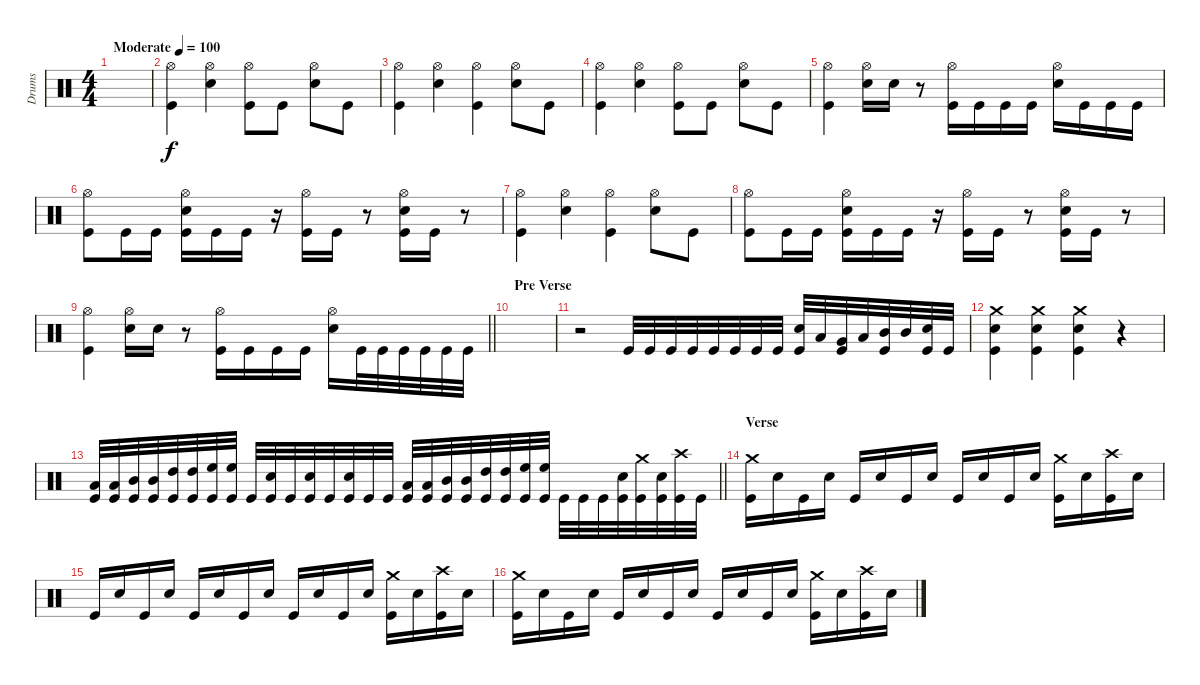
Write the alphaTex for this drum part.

\track ("Drums" "Drums") {instrument percussion}
\staff {score}
\articulation defaults
\ts (4 4)
\tempo (100 "Moderate")
\clef neutral
\ks c
|
("Hi-Hat (open)" "Kick (hit)").4 ("Hi-Hat (open)" "Electric Snare (hit)").4 ("Hi-Hat (open)" "Kick (hit)").8 "Kick (hit)".8 ("Hi-Hat (open)" "Electric Snare (hit)").8 "Kick (hit)".8 |
("Hi-Hat (open)" "Kick (hit)").4 ("Hi-Hat (open)" "Electric Snare (hit)").4 ("Hi-Hat (open)" "Kick (hit)").4 ("Hi-Hat (open)" "Electric Snare (hit)").8 "Kick (hit)".8 |
("Hi-Hat (open)" "Kick (hit)").4 ("Hi-Hat (open)" "Electric Snare (hit)").4 ("Hi-Hat (open)" "Kick (hit)").8 "Kick (hit)".8 ("Hi-Hat (open)" "Electric Snare (hit)").8 "Kick (hit)".8 |
("Hi-Hat (open)" "Kick (hit)").4 ("Hi-Hat (open)" "Electric Snare (hit)").16 "Electric Snare (hit)".16 r.8 ("Hi-Hat (open)" "Kick (hit)").16 "Kick (hit)".16 "Kick (hit)".16 "Kick (hit)".16 ("Hi-Hat (open)" "Electric Snare (hit)").16 "Kick (hit)".16 "Kick (hit)".16 "Kick (hit)".16 |
("Hi-Hat (open)" "Kick (hit)").8 "Kick (hit)".16 "Kick (hit)".16 ("Hi-Hat (open)" "Electric Snare (hit)" "Kick (hit)").16 "Kick (hit)".16 "Kick (hit)".16 r.16 ("Hi-Hat (open)" "Kick (hit)").16 "Kick (hit)".16 r.8 ("Hi-Hat (open)" "Electric Snare (hit)" "Kick (hit)").16 "Kick (hit)".16 r.8 |
("Hi-Hat (open)" "Kick (hit)").4 ("Hi-Hat (open)" "Electric Snare (hit)").4 ("Hi-Hat (open)" "Kick (hit)").4 ("Hi-Hat (open)" "Electric Snare (hit)").8 "Kick (hit)".8 |
("Hi-Hat (open)" "Kick (hit)").8 "Kick (hit)".16 "Kick (hit)".16 ("Hi-Hat (open)" "Electric Snare (hit)" "Kick (hit)").16 "Kick (hit)".16 "Kick (hit)".16 r.16 ("Hi-Hat (open)" "Kick (hit)").16 "Kick (hit)".16 r.8 ("Hi-Hat (open)" "Electric Snare (hit)" "Kick (hit)").16 "Kick (hit)".16 r.8 |
\barLineRight lightlight
("Hi-Hat (open)" "Kick (hit)").4 ("Hi-Hat (open)" "Electric Snare (hit)").16 "Electric Snare (hit)".16 r.8 ("Hi-Hat (open)" "Kick (hit)").16 "Kick (hit)".16 "Kick (hit)".16 "Kick (hit)".16 ("Hi-Hat (open)" "Electric Snare (hit)").16 "Kick (hit)".32 "Kick (hit)".32 "Kick (hit)".32 "Kick (hit)".32 "Kick (hit)".32 "Kick (hit)".32 |
\section ("" "Pre Verse")
|
r.2 "Kick (hit)".32 "Kick (hit)".32 "Kick (hit)".32 "Kick (hit)".32 "Kick (hit)".32 "Kick (hit)".32 "Kick (hit)".32 "Kick (hit)".32 ("Electric Snare (hit)" "Kick (hit)").32 "Low Tom (hit)".32 ("Very Low Tom (hit)" "Kick (hit)").32 "Low Tom (hit)".32 ("Mid Tom (hit)" "Kick (hit)").32 "Mid Tom (hit)".32 ("Electric Snare (hit)" "Kick (hit)").32 "Kick (hit)".32 |
("Crash medium (hit)" "Electric Snare (hit)" "Kick (hit)").4 ("Crash medium (hit)" "Electric Snare (hit)" "Kick (hit)").4 ("Crash medium (hit)" "Electric Snare (hit)" "Kick (hit)").4 r.4 |
\barLineRight lightlight
("Low Tom (hit)" "Kick (hit)").32 ("Low Tom (hit)" "Kick (hit)").32 ("Mid Tom (hit)" "Kick (hit)").32 ("Mid Tom (hit)" "Kick (hit)").32 ("High Tom (hit)" "Kick (hit)").32 ("High Tom (hit)" "Kick (hit)").32 ("High Floor Tom (hit)" "Kick (hit)").32 ("High Floor Tom (hit)" "Kick (hit)").32 "Kick (hit)".32 ("Electric Snare (hit)" "Kick (hit)").32 "Kick (hit)".32 ("Electric Snare (hit)" "Kick (hit)").32 "Kick (hit)".32 ("Electric Snare (hit)" "Kick (hit)").32 "Kick (hit)".32 "Kick (hit)".32 ("Low Tom (hit)" "Kick (hit)").32 ("Low Tom (hit)" "Kick (hit)").32 ("Mid Tom (hit)" "Kick (hit)").32 ("Mid Tom (hit)" "Kick (hit)").32 ("High Tom (hit)" "Kick (hit)").32 ("High Tom (hit)" "Kick (hit)").32 ("High Floor Tom (hit)" "Kick (hit)").32 ("High Floor Tom (hit)" "Kick (hit)").32 "Kick (hit)".32 "Kick (hit)".32 "Kick (hit)".32 ("Electric Snare (hit)" "Kick (hit)").32 ("Crash medium (hit)" "Kick (hit)").32 ("Electric Snare (hit)" "Kick (hit)").32 ("Crash high (hit)" "Kick (hit)").32 "Kick (hit)".32 |
\section ("" "Verse")
("Crash medium (hit)" "Kick (hit)").16 "Electric Snare (hit)".16 "Kick (hit)".16 "Electric Snare (hit)".16 "Kick (hit)".16 "Electric Snare (hit)".16 "Kick (hit)".16 "Electric Snare (hit)".16 "Kick (hit)".16 "Electric Snare (hit)".16 "Kick (hit)".16 "Electric Snare (hit)".16 ("Crash medium (hit)" "Kick (hit)").16 "Electric Snare (hit)".16 ("Crash high (hit)" "Kick (hit)").16 "Electric Snare (hit)".16 |
"Kick (hit)".16 "Electric Snare (hit)".16 "Kick (hit)".16 "Electric Snare (hit)".16 "Kick (hit)".16 "Electric Snare (hit)".16 "Kick (hit)".16 "Electric Snare (hit)".16 "Kick (hit)".16 "Electric Snare (hit)".16 "Kick (hit)".16 "Electric Snare (hit)".16 ("Crash medium (hit)" "Kick (hit)").16 "Electric Snare (hit)".16 ("Crash high (hit)" "Kick (hit)").16 "Electric Snare (hit)".16 |
("Crash medium (hit)" "Kick (hit)").16 "Electric Snare (hit)".16 "Kick (hit)".16 "Electric Snare (hit)".16 "Kick (hit)".16 "Electric Snare (hit)".16 "Kick (hit)".16 "Electric Snare (hit)".16 "Kick (hit)".16 "Electric Snare (hit)".16 "Kick (hit)".16 "Electric Snare (hit)".16 ("Crash medium (hit)" "Kick (hit)").16 "Electric Snare (hit)".16 ("Crash high (hit)" "Kick (hit)").16 "Electric Snare (hit)".16
